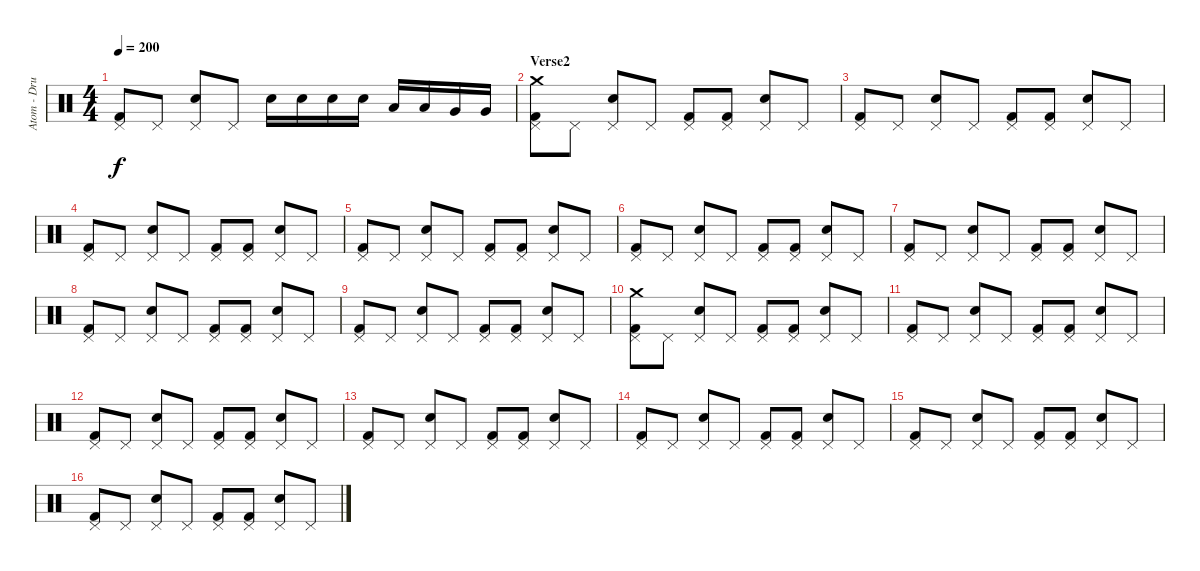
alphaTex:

\track ("Atom - Drums" "Atom - Dru") {instrument percussion}
\staff {score}
\articulation defaults
\ts (4 4)
\tempo 200
\clef neutral
\ks c
("Pedal Hi-Hat (hit)" "Kick (hit) 2").8{dy f} "Pedal Hi-Hat (hit)".8 ("Pedal Hi-Hat (hit)" "Electric Snare (hit)").8 "Pedal Hi-Hat (hit)".8 "Electric Snare (hit)".16 "Electric Snare (hit)".16 "Electric Snare (hit)".16 "Electric Snare (hit)".16 "Low Tom (hit)".16 "Low Tom (hit)".16 "Very Low Tom (hit)".16 "Very Low Tom (hit)".16 |
\section ("" "Verse2")
("Crash medium (hit)" "Pedal Hi-Hat (hit)" "Kick (hit) 2").8 "Pedal Hi-Hat (hit)".8 ("Pedal Hi-Hat (hit)" "Electric Snare (hit)").8 "Pedal Hi-Hat (hit)".8 ("Pedal Hi-Hat (hit)" "Kick (hit) 2").8 ("Pedal Hi-Hat (hit)" "Kick (hit) 2").8 ("Pedal Hi-Hat (hit)" "Electric Snare (hit)").8 "Pedal Hi-Hat (hit)".8 |
("Pedal Hi-Hat (hit)" "Kick (hit) 2").8 "Pedal Hi-Hat (hit)".8 ("Pedal Hi-Hat (hit)" "Electric Snare (hit)").8 "Pedal Hi-Hat (hit)".8 ("Pedal Hi-Hat (hit)" "Kick (hit) 2").8 ("Pedal Hi-Hat (hit)" "Kick (hit) 2").8 ("Pedal Hi-Hat (hit)" "Electric Snare (hit)").8 "Pedal Hi-Hat (hit)".8 |
("Pedal Hi-Hat (hit)" "Kick (hit) 2").8 "Pedal Hi-Hat (hit)".8 ("Pedal Hi-Hat (hit)" "Electric Snare (hit)").8 "Pedal Hi-Hat (hit)".8 ("Pedal Hi-Hat (hit)" "Kick (hit) 2").8 ("Pedal Hi-Hat (hit)" "Kick (hit) 2").8 ("Pedal Hi-Hat (hit)" "Electric Snare (hit)").8 "Pedal Hi-Hat (hit)".8 |
("Pedal Hi-Hat (hit)" "Kick (hit) 2").8 "Pedal Hi-Hat (hit)".8 ("Pedal Hi-Hat (hit)" "Electric Snare (hit)").8 "Pedal Hi-Hat (hit)".8 ("Pedal Hi-Hat (hit)" "Kick (hit) 2").8 ("Pedal Hi-Hat (hit)" "Kick (hit) 2").8 ("Pedal Hi-Hat (hit)" "Electric Snare (hit)").8 "Pedal Hi-Hat (hit)".8 |
("Pedal Hi-Hat (hit)" "Kick (hit) 2").8 "Pedal Hi-Hat (hit)".8 ("Pedal Hi-Hat (hit)" "Electric Snare (hit)").8 "Pedal Hi-Hat (hit)".8 ("Pedal Hi-Hat (hit)" "Kick (hit) 2").8 ("Pedal Hi-Hat (hit)" "Kick (hit) 2").8 ("Pedal Hi-Hat (hit)" "Electric Snare (hit)").8 "Pedal Hi-Hat (hit)".8 |
("Pedal Hi-Hat (hit)" "Kick (hit) 2").8 "Pedal Hi-Hat (hit)".8 ("Pedal Hi-Hat (hit)" "Electric Snare (hit)").8 "Pedal Hi-Hat (hit)".8 ("Pedal Hi-Hat (hit)" "Kick (hit) 2").8 ("Pedal Hi-Hat (hit)" "Kick (hit) 2").8 ("Pedal Hi-Hat (hit)" "Electric Snare (hit)").8 "Pedal Hi-Hat (hit)".8 |
("Pedal Hi-Hat (hit)" "Kick (hit) 2").8 "Pedal Hi-Hat (hit)".8 ("Pedal Hi-Hat (hit)" "Electric Snare (hit)").8 "Pedal Hi-Hat (hit)".8 ("Pedal Hi-Hat (hit)" "Kick (hit) 2").8 ("Pedal Hi-Hat (hit)" "Kick (hit) 2").8 ("Pedal Hi-Hat (hit)" "Electric Snare (hit)").8 "Pedal Hi-Hat (hit)".8 |
("Pedal Hi-Hat (hit)" "Kick (hit) 2").8 "Pedal Hi-Hat (hit)".8 ("Pedal Hi-Hat (hit)" "Electric Snare (hit)").8 "Pedal Hi-Hat (hit)".8 ("Pedal Hi-Hat (hit)" "Kick (hit) 2").8 ("Pedal Hi-Hat (hit)" "Kick (hit) 2").8 ("Pedal Hi-Hat (hit)" "Electric Snare (hit)").8 "Pedal Hi-Hat (hit)".8 |
("Crash medium (hit)" "Pedal Hi-Hat (hit)" "Kick (hit) 2").8 "Pedal Hi-Hat (hit)".8 ("Pedal Hi-Hat (hit)" "Electric Snare (hit)").8 "Pedal Hi-Hat (hit)".8 ("Pedal Hi-Hat (hit)" "Kick (hit) 2").8 ("Pedal Hi-Hat (hit)" "Kick (hit) 2").8 ("Pedal Hi-Hat (hit)" "Electric Snare (hit)").8 "Pedal Hi-Hat (hit)".8 |
("Pedal Hi-Hat (hit)" "Kick (hit) 2").8 "Pedal Hi-Hat (hit)".8 ("Pedal Hi-Hat (hit)" "Electric Snare (hit)").8 "Pedal Hi-Hat (hit)".8 ("Pedal Hi-Hat (hit)" "Kick (hit) 2").8 ("Pedal Hi-Hat (hit)" "Kick (hit) 2").8 ("Pedal Hi-Hat (hit)" "Electric Snare (hit)").8 "Pedal Hi-Hat (hit)".8 |
("Pedal Hi-Hat (hit)" "Kick (hit) 2").8 "Pedal Hi-Hat (hit)".8 ("Pedal Hi-Hat (hit)" "Electric Snare (hit)").8 "Pedal Hi-Hat (hit)".8 ("Pedal Hi-Hat (hit)" "Kick (hit) 2").8 ("Pedal Hi-Hat (hit)" "Kick (hit) 2").8 ("Pedal Hi-Hat (hit)" "Electric Snare (hit)").8 "Pedal Hi-Hat (hit)".8 |
("Pedal Hi-Hat (hit)" "Kick (hit) 2").8 "Pedal Hi-Hat (hit)".8 ("Pedal Hi-Hat (hit)" "Electric Snare (hit)").8 "Pedal Hi-Hat (hit)".8 ("Pedal Hi-Hat (hit)" "Kick (hit) 2").8 ("Pedal Hi-Hat (hit)" "Kick (hit) 2").8 ("Pedal Hi-Hat (hit)" "Electric Snare (hit)").8 "Pedal Hi-Hat (hit)".8 |
("Pedal Hi-Hat (hit)" "Kick (hit) 2").8 "Pedal Hi-Hat (hit)".8 ("Pedal Hi-Hat (hit)" "Electric Snare (hit)").8 "Pedal Hi-Hat (hit)".8 ("Pedal Hi-Hat (hit)" "Kick (hit) 2").8 ("Pedal Hi-Hat (hit)" "Kick (hit) 2").8 ("Pedal Hi-Hat (hit)" "Electric Snare (hit)").8 "Pedal Hi-Hat (hit)".8 |
("Pedal Hi-Hat (hit)" "Kick (hit) 2").8 "Pedal Hi-Hat (hit)".8 ("Pedal Hi-Hat (hit)" "Electric Snare (hit)").8 "Pedal Hi-Hat (hit)".8 ("Pedal Hi-Hat (hit)" "Kick (hit) 2").8 ("Pedal Hi-Hat (hit)" "Kick (hit) 2").8 ("Pedal Hi-Hat (hit)" "Electric Snare (hit)").8 "Pedal Hi-Hat (hit)".8 |
("Pedal Hi-Hat (hit)" "Kick (hit) 2").8 "Pedal Hi-Hat (hit)".8 ("Pedal Hi-Hat (hit)" "Electric Snare (hit)").8 "Pedal Hi-Hat (hit)".8 ("Pedal Hi-Hat (hit)" "Kick (hit) 2").8 ("Pedal Hi-Hat (hit)" "Kick (hit) 2").8 ("Pedal Hi-Hat (hit)" "Electric Snare (hit)").8 "Pedal Hi-Hat (hit)".8
